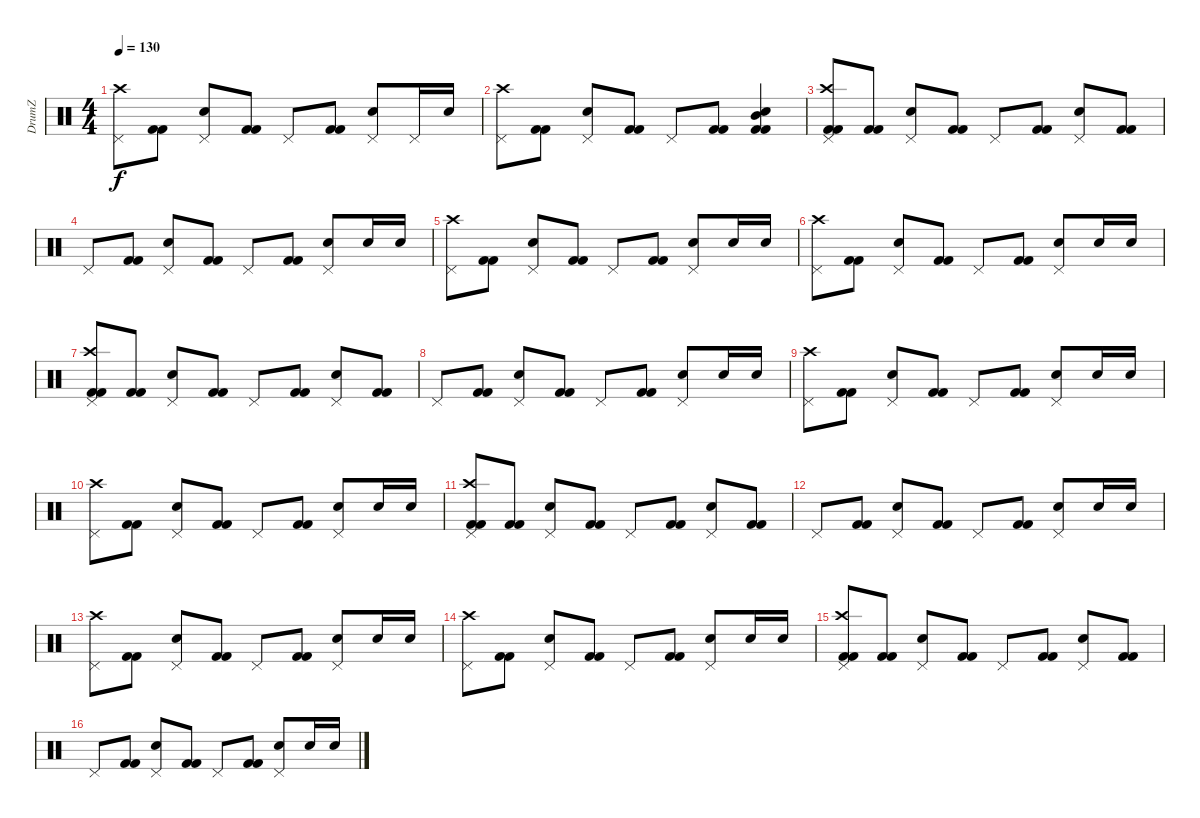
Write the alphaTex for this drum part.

\track ("DrumZ" "DrumZ") {instrument percussion}
\staff {score}
\articulation defaults
\ts (4 4)
\tempo 130
\clef neutral
\ks c
("Pedal Hi-Hat (hit)" "Crash high (hit)").8{dy f} ("Kick (hit) 2" "Kick (hit) 2").8 ("Pedal Hi-Hat (hit)" "Snare (hit) 2").8 ("Kick (hit) 2" "Kick (hit) 2").8 "Pedal Hi-Hat (hit)".8 ("Kick (hit) 2" "Kick (hit) 2").8 ("Pedal Hi-Hat (hit)" "Snare (hit) 2").8 "Pedal Hi-Hat (hit)".16 "Snare (hit) 2".16 |
("Pedal Hi-Hat (hit)" "Crash high (hit)").8 ("Kick (hit) 2" "Kick (hit) 2").8 ("Pedal Hi-Hat (hit)" "Snare (hit) 2").8 ("Kick (hit) 2" "Kick (hit) 2").8 "Pedal Hi-Hat (hit)".8 ("Kick (hit) 2" "Kick (hit) 2").8 ("Mid Tom (hit)" "Snare (hit) 2" "Kick (hit) 2" "Kick (hit) 2").4 |
("Pedal Hi-Hat (hit)" "Crash high (hit)" "Kick (hit) 2" "Kick (hit) 2").8 ("Kick (hit) 2" "Kick (hit) 2").8 ("Pedal Hi-Hat (hit)" "Snare (hit) 2").8 ("Kick (hit) 2" "Kick (hit) 2").8 "Pedal Hi-Hat (hit)".8 ("Kick (hit) 2" "Kick (hit) 2").8 ("Pedal Hi-Hat (hit)" "Snare (hit) 2").8 ("Kick (hit) 2" "Kick (hit) 2").8 |
"Pedal Hi-Hat (hit)".8 ("Kick (hit) 2" "Kick (hit) 2").8 ("Pedal Hi-Hat (hit)" "Snare (hit) 2").8 ("Kick (hit) 2" "Kick (hit) 2").8 "Pedal Hi-Hat (hit)".8 ("Kick (hit) 2" "Kick (hit) 2").8 ("Pedal Hi-Hat (hit)" "Snare (hit) 2").8 "Snare (hit) 2".16 "Snare (hit) 2".16 |
("Pedal Hi-Hat (hit)" "Crash high (hit)").8 ("Kick (hit) 2" "Kick (hit) 2").8 ("Pedal Hi-Hat (hit)" "Snare (hit) 2").8 ("Kick (hit) 2" "Kick (hit) 2").8 "Pedal Hi-Hat (hit)".8 ("Kick (hit) 2" "Kick (hit) 2").8 ("Pedal Hi-Hat (hit)" "Snare (hit) 2").8 "Snare (hit) 2".16 "Snare (hit) 2".16 |
("Pedal Hi-Hat (hit)" "Crash high (hit)").8 ("Kick (hit) 2" "Kick (hit) 2").8 ("Pedal Hi-Hat (hit)" "Snare (hit) 2").8 ("Kick (hit) 2" "Kick (hit) 2").8 "Pedal Hi-Hat (hit)".8 ("Kick (hit) 2" "Kick (hit) 2").8 ("Pedal Hi-Hat (hit)" "Snare (hit) 2").8 "Snare (hit) 2".16 "Snare (hit) 2".16 |
("Pedal Hi-Hat (hit)" "Crash high (hit)" "Kick (hit) 2" "Kick (hit) 2").8 ("Kick (hit) 2" "Kick (hit) 2").8 ("Pedal Hi-Hat (hit)" "Snare (hit) 2").8 ("Kick (hit) 2" "Kick (hit) 2").8 "Pedal Hi-Hat (hit)".8 ("Kick (hit) 2" "Kick (hit) 2").8 ("Pedal Hi-Hat (hit)" "Snare (hit) 2").8 ("Kick (hit) 2" "Kick (hit) 2").8 |
"Pedal Hi-Hat (hit)".8 ("Kick (hit) 2" "Kick (hit) 2").8 ("Pedal Hi-Hat (hit)" "Snare (hit) 2").8 ("Kick (hit) 2" "Kick (hit) 2").8 "Pedal Hi-Hat (hit)".8 ("Kick (hit) 2" "Kick (hit) 2").8 ("Pedal Hi-Hat (hit)" "Snare (hit) 2").8 "Snare (hit) 2".16 "Snare (hit) 2".16 |
("Pedal Hi-Hat (hit)" "Crash high (hit)").8 ("Kick (hit) 2" "Kick (hit) 2").8 ("Pedal Hi-Hat (hit)" "Snare (hit) 2").8 ("Kick (hit) 2" "Kick (hit) 2").8 "Pedal Hi-Hat (hit)".8 ("Kick (hit) 2" "Kick (hit) 2").8 ("Pedal Hi-Hat (hit)" "Snare (hit) 2").8 "Snare (hit) 2".16 "Snare (hit) 2".16 |
("Pedal Hi-Hat (hit)" "Crash high (hit)").8 ("Kick (hit) 2" "Kick (hit) 2").8 ("Pedal Hi-Hat (hit)" "Snare (hit) 2").8 ("Kick (hit) 2" "Kick (hit) 2").8 "Pedal Hi-Hat (hit)".8 ("Kick (hit) 2" "Kick (hit) 2").8 ("Pedal Hi-Hat (hit)" "Snare (hit) 2").8 "Snare (hit) 2".16 "Snare (hit) 2".16 |
("Pedal Hi-Hat (hit)" "Crash high (hit)" "Kick (hit) 2" "Kick (hit) 2").8 ("Kick (hit) 2" "Kick (hit) 2").8 ("Pedal Hi-Hat (hit)" "Snare (hit) 2").8 ("Kick (hit) 2" "Kick (hit) 2").8 "Pedal Hi-Hat (hit)".8 ("Kick (hit) 2" "Kick (hit) 2").8 ("Pedal Hi-Hat (hit)" "Snare (hit) 2").8 ("Kick (hit) 2" "Kick (hit) 2").8 |
"Pedal Hi-Hat (hit)".8 ("Kick (hit) 2" "Kick (hit) 2").8 ("Pedal Hi-Hat (hit)" "Snare (hit) 2").8 ("Kick (hit) 2" "Kick (hit) 2").8 "Pedal Hi-Hat (hit)".8 ("Kick (hit) 2" "Kick (hit) 2").8 ("Pedal Hi-Hat (hit)" "Snare (hit) 2").8 "Snare (hit) 2".16 "Snare (hit) 2".16 |
("Pedal Hi-Hat (hit)" "Crash high (hit)").8 ("Kick (hit) 2" "Kick (hit) 2").8 ("Pedal Hi-Hat (hit)" "Snare (hit) 2").8 ("Kick (hit) 2" "Kick (hit) 2").8 "Pedal Hi-Hat (hit)".8 ("Kick (hit) 2" "Kick (hit) 2").8 ("Pedal Hi-Hat (hit)" "Snare (hit) 2").8 "Snare (hit) 2".16 "Snare (hit) 2".16 |
("Pedal Hi-Hat (hit)" "Crash high (hit)").8 ("Kick (hit) 2" "Kick (hit) 2").8 ("Pedal Hi-Hat (hit)" "Snare (hit) 2").8 ("Kick (hit) 2" "Kick (hit) 2").8 "Pedal Hi-Hat (hit)".8 ("Kick (hit) 2" "Kick (hit) 2").8 ("Pedal Hi-Hat (hit)" "Snare (hit) 2").8 "Snare (hit) 2".16 "Snare (hit) 2".16 |
("Pedal Hi-Hat (hit)" "Crash high (hit)" "Kick (hit) 2" "Kick (hit) 2").8 ("Kick (hit) 2" "Kick (hit) 2").8 ("Pedal Hi-Hat (hit)" "Snare (hit) 2").8 ("Kick (hit) 2" "Kick (hit) 2").8 "Pedal Hi-Hat (hit)".8 ("Kick (hit) 2" "Kick (hit) 2").8 ("Pedal Hi-Hat (hit)" "Snare (hit) 2").8 ("Kick (hit) 2" "Kick (hit) 2").8 |
"Pedal Hi-Hat (hit)".8 ("Kick (hit) 2" "Kick (hit) 2").8 ("Pedal Hi-Hat (hit)" "Snare (hit) 2").8 ("Kick (hit) 2" "Kick (hit) 2").8 "Pedal Hi-Hat (hit)".8 ("Kick (hit) 2" "Kick (hit) 2").8 ("Pedal Hi-Hat (hit)" "Snare (hit) 2").8 "Snare (hit) 2".16 "Snare (hit) 2".16
